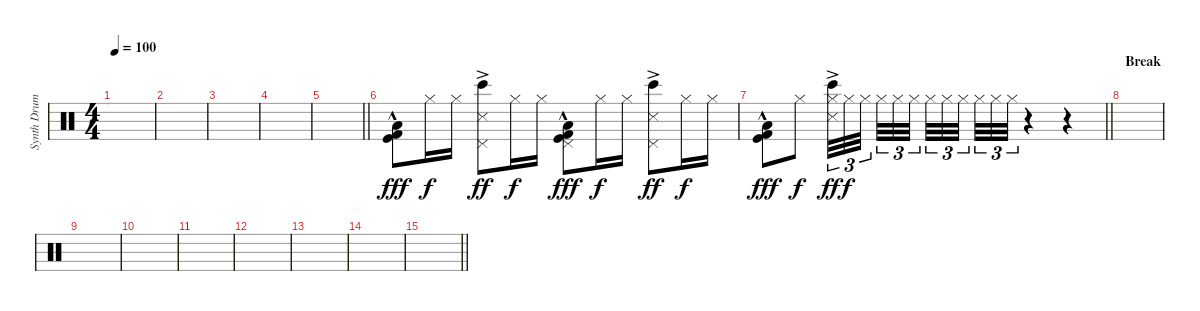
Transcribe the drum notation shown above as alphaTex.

\track ("Synth Drums" "Synth Drum") {instrument percussion}
\staff {score}
\articulation defaults
\ts (4 4)
\tempo 100
\clef neutral
\ks c
|
|
|
|
\barLineRight lightlight
|
("Low Floor Tom (hit)"{hac} "Kick (hit) 2"{hac} "Kick (hit)"{hac}).8{dy fff} "Hi-Hat (closed)".16{dy f} "Hi-Hat (closed)".16 ("Pedal Hi-Hat (hit)" "Bongo High (hit)"{ac} "Metronome (hit)"{ac}).8{dy ff} "Hi-Hat (closed)".16{dy f} "Hi-Hat (closed)".16 ("Pedal Hi-Hat (hit)" "Low Floor Tom (hit)"{hac} "Kick (hit) 2"{hac} "Kick (hit)"{hac}).8{dy fff} "Hi-Hat (closed)".16{dy f} "Hi-Hat (closed)".16 ("Pedal Hi-Hat (hit)" "Bongo High (hit)"{ac} "Metronome (hit)"{ac}).8{dy ff} "Hi-Hat (closed)".16{dy f} "Hi-Hat (closed)".16 |
\barLineRight lightlight
("Low Floor Tom (hit)"{hac} "Kick (hit) 2"{hac} "Kick (hit)"{hac}).8{dy fff} "Hi-Hat (closed)".8{dy f} ("Hi-Hat (closed)" "Bongo High (hit)"{ac} "Metronome (hit)"{ac}).32{tu (3 2) dy ff} "Hi-Hat (closed)".32{tu (3 2) dy f} "Hi-Hat (closed)".32{tu (3 2) beam splitsecondary} "Hi-Hat (closed)".32{tu (3 2)} "Hi-Hat (closed)".32{tu (3 2)} "Hi-Hat (closed)".32{tu (3 2) beam splitsecondary} "Hi-Hat (closed)".32{tu (3 2)} "Hi-Hat (closed)".32{tu (3 2)} "Hi-Hat (closed)".32{tu (3 2) beam splitsecondary} "Hi-Hat (closed)".32{tu (3 2)} "Hi-Hat (closed)".32{tu (3 2)} "Hi-Hat (closed)".32{tu (3 2)} r.4 r.4 |
\section ("" "Break")
|
|
|
|
|
|
|
\barLineRight lightlight
